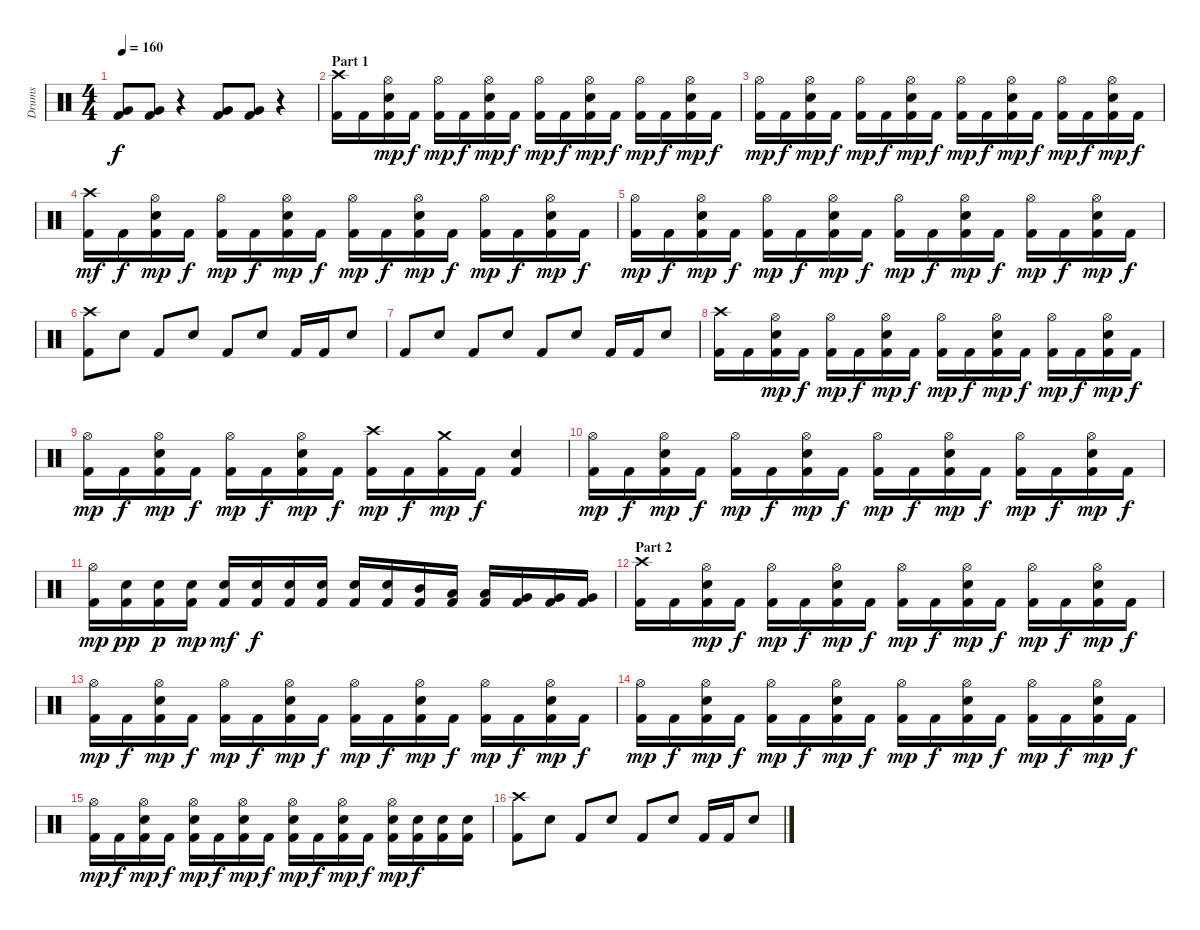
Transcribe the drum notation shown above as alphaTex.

\track ("Drums" "Drums") {instrument percussion}
\staff {score}
\articulation defaults
\ts (4 4)
\tempo 160
\clef neutral
\ks c
("Kick (hit) 2" "Very Low Tom (hit)").8{dy f} ("Kick (hit) 2" "Very Low Tom (hit)").8 r.4 ("Kick (hit) 2" "Very Low Tom (hit)").8 ("Kick (hit) 2" "Very Low Tom (hit)").8 r.4 |
\section ("" "Part 1")
("Kick (hit) 2" "Crash high (hit)").16 "Kick (hit) 2".16 ("Kick (hit) 2" "Electric Snare (hit)" "Hi-Hat (open)").16{dy mp} "Kick (hit) 2".16{dy f} ("Kick (hit) 2" "Hi-Hat (open)").16{dy mp} "Kick (hit) 2".16{dy f} ("Kick (hit) 2" "Electric Snare (hit)" "Hi-Hat (open)").16{dy mp} "Kick (hit) 2".16{dy f} ("Kick (hit) 2" "Hi-Hat (open)").16{dy mp} "Kick (hit) 2".16{dy f} ("Kick (hit) 2" "Electric Snare (hit)" "Hi-Hat (open)").16{dy mp} "Kick (hit) 2".16{dy f} ("Kick (hit) 2" "Hi-Hat (open)").16{dy mp} "Kick (hit) 2".16{dy f} ("Kick (hit) 2" "Electric Snare (hit)" "Hi-Hat (open)").16{dy mp} "Kick (hit) 2".16{dy f} |
("Kick (hit) 2" "Hi-Hat (open)").16{dy mp} "Kick (hit) 2".16{dy f} ("Kick (hit) 2" "Electric Snare (hit)" "Hi-Hat (open)").16{dy mp} "Kick (hit) 2".16{dy f} ("Kick (hit) 2" "Hi-Hat (open)").16{dy mp} "Kick (hit) 2".16{dy f} ("Kick (hit) 2" "Electric Snare (hit)" "Hi-Hat (open)").16{dy mp} "Kick (hit) 2".16{dy f} ("Kick (hit) 2" "Hi-Hat (open)").16{dy mp} "Kick (hit) 2".16{dy f} ("Kick (hit) 2" "Electric Snare (hit)" "Hi-Hat (open)").16{dy mp} "Kick (hit) 2".16{dy f} ("Kick (hit) 2" "Hi-Hat (open)").16{dy mp} "Kick (hit) 2".16{dy f} ("Kick (hit) 2" "Electric Snare (hit)" "Hi-Hat (open)").16{dy mp} "Kick (hit) 2".16{dy f} |
("Kick (hit) 2" "Crash high (hit)").16{dy mf} "Kick (hit) 2".16{dy f} ("Kick (hit) 2" "Electric Snare (hit)" "Hi-Hat (open)").16{dy mp} "Kick (hit) 2".16{dy f} ("Kick (hit) 2" "Hi-Hat (open)").16{dy mp} "Kick (hit) 2".16{dy f} ("Kick (hit) 2" "Electric Snare (hit)" "Hi-Hat (open)").16{dy mp} "Kick (hit) 2".16{dy f} ("Kick (hit) 2" "Hi-Hat (open)").16{dy mp} "Kick (hit) 2".16{dy f} ("Kick (hit) 2" "Electric Snare (hit)" "Hi-Hat (open)").16{dy mp} "Kick (hit) 2".16{dy f} ("Kick (hit) 2" "Hi-Hat (open)").16{dy mp} "Kick (hit) 2".16{dy f} ("Kick (hit) 2" "Electric Snare (hit)" "Hi-Hat (open)").16{dy mp} "Kick (hit) 2".16{dy f} |
("Kick (hit) 2" "Hi-Hat (open)").16{dy mp} "Kick (hit) 2".16{dy f} ("Kick (hit) 2" "Electric Snare (hit)" "Hi-Hat (open)").16{dy mp} "Kick (hit) 2".16{dy f} ("Kick (hit) 2" "Hi-Hat (open)").16{dy mp} "Kick (hit) 2".16{dy f} ("Kick (hit) 2" "Electric Snare (hit)" "Hi-Hat (open)").16{dy mp} "Kick (hit) 2".16{dy f} ("Kick (hit) 2" "Hi-Hat (open)").16{dy mp} "Kick (hit) 2".16{dy f} ("Kick (hit) 2" "Electric Snare (hit)" "Hi-Hat (open)").16{dy mp} "Kick (hit) 2".16{dy f} ("Kick (hit) 2" "Hi-Hat (open)").16{dy mp} "Kick (hit) 2".16{dy f} ("Kick (hit) 2" "Electric Snare (hit)" "Hi-Hat (open)").16{dy mp} "Kick (hit) 2".16{dy f} |
("Kick (hit) 2" "Crash high (hit)").8 "Electric Snare (hit)".8 "Kick (hit) 2".8 "Electric Snare (hit)".8 "Kick (hit) 2".8 "Electric Snare (hit)".8 "Kick (hit) 2".16 "Kick (hit) 2".16 "Electric Snare (hit)".8 |
"Kick (hit) 2".8 "Electric Snare (hit)".8 "Kick (hit) 2".8 "Electric Snare (hit)".8 "Kick (hit) 2".8 "Electric Snare (hit)".8 "Kick (hit) 2".16 "Kick (hit) 2".16 "Electric Snare (hit)".8 |
("Kick (hit) 2" "Crash high (hit)").16 "Kick (hit) 2".16 ("Kick (hit) 2" "Electric Snare (hit)" "Hi-Hat (open)").16{dy mp} "Kick (hit) 2".16{dy f} ("Kick (hit) 2" "Hi-Hat (open)").16{dy mp} "Kick (hit) 2".16{dy f} ("Kick (hit) 2" "Electric Snare (hit)" "Hi-Hat (open)").16{dy mp} "Kick (hit) 2".16{dy f} ("Kick (hit) 2" "Hi-Hat (open)").16{dy mp} "Kick (hit) 2".16{dy f} ("Kick (hit) 2" "Electric Snare (hit)" "Hi-Hat (open)").16{dy mp} "Kick (hit) 2".16{dy f} ("Kick (hit) 2" "Hi-Hat (open)").16{dy mp} "Kick (hit) 2".16{dy f} ("Kick (hit) 2" "Electric Snare (hit)" "Hi-Hat (open)").16{dy mp} "Kick (hit) 2".16{dy f} |
("Kick (hit) 2" "Hi-Hat (open)").16{dy mp} "Kick (hit) 2".16{dy f} ("Kick (hit) 2" "Electric Snare (hit)" "Hi-Hat (open)").16{dy mp} "Kick (hit) 2".16{dy f} ("Kick (hit) 2" "Hi-Hat (open)").16{dy mp} "Kick (hit) 2".16{dy f} ("Kick (hit) 2" "Electric Snare (hit)" "Hi-Hat (open)").16{dy mp} "Kick (hit) 2".16{dy f} ("Kick (hit) 2" "Crash high (hit)").16{dy mp} "Kick (hit) 2".16{dy f} ("Kick (hit) 2" "Crash medium (hit)").16{dy mp} "Kick (hit) 2".16{dy f} ("Kick (hit) 2" "Electric Snare (hit)").4 |
("Kick (hit) 2" "Hi-Hat (open)").16{dy mp} "Kick (hit) 2".16{dy f} ("Kick (hit) 2" "Electric Snare (hit)" "Hi-Hat (open)").16{dy mp} "Kick (hit) 2".16{dy f} ("Kick (hit) 2" "Hi-Hat (open)").16{dy mp} "Kick (hit) 2".16{dy f} ("Kick (hit) 2" "Electric Snare (hit)" "Hi-Hat (open)").16{dy mp} "Kick (hit) 2".16{dy f} ("Kick (hit) 2" "Hi-Hat (open)").16{dy mp} "Kick (hit) 2".16{dy f} ("Kick (hit) 2" "Electric Snare (hit)" "Hi-Hat (open)").16{dy mp} "Kick (hit) 2".16{dy f} ("Kick (hit) 2" "Hi-Hat (open)").16{dy mp} "Kick (hit) 2".16{dy f} ("Kick (hit) 2" "Electric Snare (hit)" "Hi-Hat (open)").16{dy mp} "Kick (hit) 2".16{dy f} |
("Kick (hit) 2" "Hi-Hat (open)").16{dy mp} ("Kick (hit) 2" "Electric Snare (hit)").16{dy pp} ("Kick (hit) 2" "Electric Snare (hit)").16{dy p} ("Kick (hit) 2" "Electric Snare (hit)").16{dy mp} ("Kick (hit) 2" "Electric Snare (hit)").16{dy mf} ("Kick (hit) 2" "Electric Snare (hit)").16{dy f} ("Kick (hit) 2" "Electric Snare (hit)").16 ("Kick (hit) 2" "Electric Snare (hit)").16 ("Kick (hit) 2" "Electric Snare (hit)").16 ("Kick (hit) 2" "Electric Snare (hit)").16 ("Kick (hit) 2" "Mid Tom (hit)").16 ("Kick (hit) 2" "Low Tom (hit)").16 ("Kick (hit) 2" "Low Tom (hit)").16 ("Kick (hit) 2" "Very Low Tom (hit)").16 ("Kick (hit) 2" "Very Low Tom (hit)").16 ("Kick (hit) 2" "Very Low Tom (hit)").16 |
\section ("" "Part 2")
("Kick (hit) 2" "Crash high (hit)").16 "Kick (hit) 2".16 ("Kick (hit) 2" "Electric Snare (hit)" "Hi-Hat (open)").16{dy mp} "Kick (hit) 2".16{dy f} ("Kick (hit) 2" "Hi-Hat (open)").16{dy mp} "Kick (hit) 2".16{dy f} ("Kick (hit) 2" "Electric Snare (hit)" "Hi-Hat (open)").16{dy mp} "Kick (hit) 2".16{dy f} ("Kick (hit) 2" "Hi-Hat (open)").16{dy mp} "Kick (hit) 2".16{dy f} ("Kick (hit) 2" "Electric Snare (hit)" "Hi-Hat (open)").16{dy mp} "Kick (hit) 2".16{dy f} ("Kick (hit) 2" "Hi-Hat (open)").16{dy mp} "Kick (hit) 2".16{dy f} ("Kick (hit) 2" "Electric Snare (hit)" "Hi-Hat (open)").16{dy mp} "Kick (hit) 2".16{dy f} |
("Kick (hit) 2" "Hi-Hat (open)").16{dy mp} "Kick (hit) 2".16{dy f} ("Kick (hit) 2" "Electric Snare (hit)" "Hi-Hat (open)").16{dy mp} "Kick (hit) 2".16{dy f} ("Kick (hit) 2" "Hi-Hat (open)").16{dy mp} "Kick (hit) 2".16{dy f} ("Kick (hit) 2" "Electric Snare (hit)" "Hi-Hat (open)").16{dy mp} "Kick (hit) 2".16{dy f} ("Kick (hit) 2" "Hi-Hat (open)").16{dy mp} "Kick (hit) 2".16{dy f} ("Kick (hit) 2" "Electric Snare (hit)" "Hi-Hat (open)").16{dy mp} "Kick (hit) 2".16{dy f} ("Kick (hit) 2" "Hi-Hat (open)").16{dy mp} "Kick (hit) 2".16{dy f} ("Kick (hit) 2" "Electric Snare (hit)" "Hi-Hat (open)").16{dy mp} "Kick (hit) 2".16{dy f} |
("Kick (hit) 2" "Hi-Hat (open)").16{dy mp} "Kick (hit) 2".16{dy f} ("Kick (hit) 2" "Electric Snare (hit)" "Hi-Hat (open)").16{dy mp} "Kick (hit) 2".16{dy f} ("Kick (hit) 2" "Hi-Hat (open)").16{dy mp} "Kick (hit) 2".16{dy f} ("Kick (hit) 2" "Electric Snare (hit)" "Hi-Hat (open)").16{dy mp} "Kick (hit) 2".16{dy f} ("Kick (hit) 2" "Hi-Hat (open)").16{dy mp} "Kick (hit) 2".16{dy f} ("Kick (hit) 2" "Electric Snare (hit)" "Hi-Hat (open)").16{dy mp} "Kick (hit) 2".16{dy f} ("Kick (hit) 2" "Hi-Hat (open)").16{dy mp} "Kick (hit) 2".16{dy f} ("Kick (hit) 2" "Electric Snare (hit)" "Hi-Hat (open)").16{dy mp} "Kick (hit) 2".16{dy f} |
("Kick (hit) 2" "Hi-Hat (open)").16{dy mp} "Kick (hit) 2".16{dy f} ("Kick (hit) 2" "Electric Snare (hit)" "Hi-Hat (open)").16{dy mp} "Kick (hit) 2".16{dy f} ("Kick (hit) 2" "Electric Snare (hit)" "Hi-Hat (open)").16{dy mp} "Kick (hit) 2".16{dy f} ("Kick (hit) 2" "Electric Snare (hit)" "Hi-Hat (open)").16{dy mp} "Kick (hit) 2".16{dy f} ("Kick (hit) 2" "Electric Snare (hit)" "Hi-Hat (open)").16{dy mp} "Kick (hit) 2".16{dy f} ("Kick (hit) 2" "Electric Snare (hit)" "Hi-Hat (open)").16{dy mp} "Kick (hit) 2".16{dy f} ("Kick (hit) 2" "Electric Snare (hit)" "Hi-Hat (open)").16{dy mp} ("Kick (hit) 2" "Electric Snare (hit)").16{dy f} ("Kick (hit) 2" "Electric Snare (hit)").16 ("Kick (hit) 2" "Electric Snare (hit)").16 |
("Kick (hit) 2" "Crash high (hit)").8 "Electric Snare (hit)".8 "Kick (hit) 2".8 "Electric Snare (hit)".8 "Kick (hit) 2".8 "Electric Snare (hit)".8 "Kick (hit) 2".16 "Kick (hit) 2".16 "Electric Snare (hit)".8
